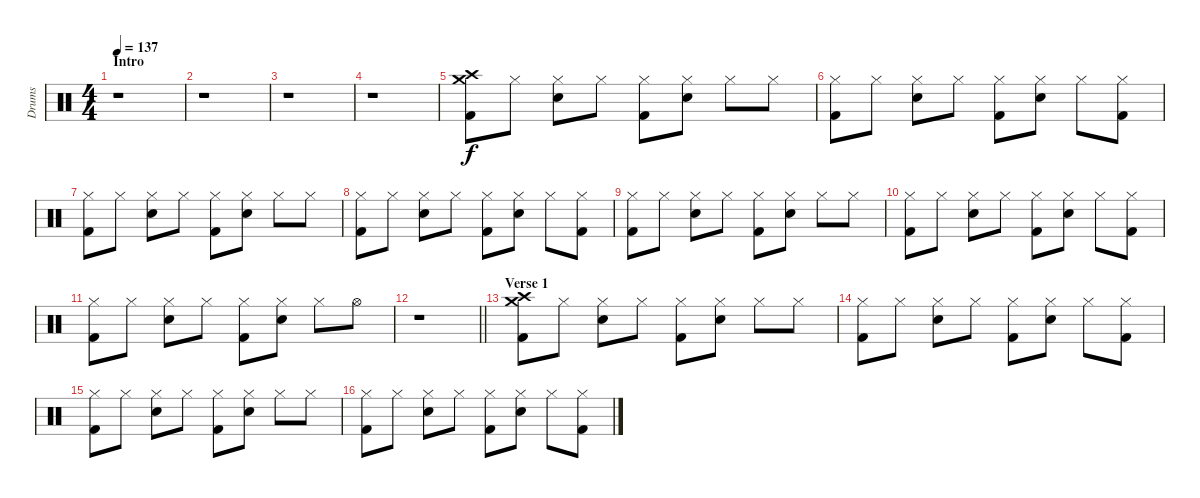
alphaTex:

\track ("Drums" "Drums") {instrument percussion}
\staff {score}
\articulation defaults
\ts (4 4)
\section ("" "Intro")
\tempo 137
\clef neutral
\ks c
r.1{dy f} |
r.1 |
r.1 |
r.1 |
("Crash medium (hit)" "Crash high (hit)" "Kick (hit) 2").8 "Hi-Hat (closed)".8 ("Hi-Hat (closed)" "Electric Snare (hit)").8 "Hi-Hat (closed)".8 ("Hi-Hat (closed)" "Kick (hit) 2").8 ("Hi-Hat (closed)" "Electric Snare (hit)").8 "Hi-Hat (closed)".8 "Hi-Hat (closed)".8 |
("Hi-Hat (closed)" "Kick (hit) 2").8 "Hi-Hat (closed)".8 ("Hi-Hat (closed)" "Electric Snare (hit)").8 "Hi-Hat (closed)".8 ("Hi-Hat (closed)" "Kick (hit) 2").8 ("Hi-Hat (closed)" "Electric Snare (hit)").8 "Hi-Hat (closed)".8 ("Hi-Hat (closed)" "Kick (hit) 2").8 |
("Hi-Hat (closed)" "Kick (hit) 2").8 "Hi-Hat (closed)".8 ("Hi-Hat (closed)" "Electric Snare (hit)").8 "Hi-Hat (closed)".8 ("Hi-Hat (closed)" "Kick (hit) 2").8 ("Hi-Hat (closed)" "Electric Snare (hit)").8 "Hi-Hat (closed)".8 "Hi-Hat (closed)".8 |
("Hi-Hat (closed)" "Kick (hit) 2").8 "Hi-Hat (closed)".8 ("Hi-Hat (closed)" "Electric Snare (hit)").8 "Hi-Hat (closed)".8 ("Hi-Hat (closed)" "Kick (hit) 2").8 ("Hi-Hat (closed)" "Electric Snare (hit)").8 "Hi-Hat (closed)".8 ("Hi-Hat (closed)" "Kick (hit) 2").8 |
("Hi-Hat (closed)" "Kick (hit) 2").8 "Hi-Hat (closed)".8 ("Hi-Hat (closed)" "Electric Snare (hit)").8 "Hi-Hat (closed)".8 ("Hi-Hat (closed)" "Kick (hit) 2").8 ("Hi-Hat (closed)" "Electric Snare (hit)").8 "Hi-Hat (closed)".8 "Hi-Hat (closed)".8 |
("Hi-Hat (closed)" "Kick (hit) 2").8 "Hi-Hat (closed)".8 ("Hi-Hat (closed)" "Electric Snare (hit)").8 "Hi-Hat (closed)".8 ("Hi-Hat (closed)" "Kick (hit) 2").8 ("Hi-Hat (closed)" "Electric Snare (hit)").8 "Hi-Hat (closed)".8 ("Hi-Hat (closed)" "Kick (hit) 2").8 |
("Hi-Hat (closed)" "Kick (hit) 2").8 "Hi-Hat (closed)".8 ("Hi-Hat (closed)" "Electric Snare (hit)").8 "Hi-Hat (closed)".8 ("Hi-Hat (closed)" "Kick (hit) 2").8 ("Hi-Hat (closed)" "Electric Snare (hit)").8 "Hi-Hat (closed)".8 "Hi-Hat (open)".8 |
\barLineRight lightlight
r.1 |
\section ("" "Verse 1")
("Crash medium (hit)" "Crash high (hit)" "Kick (hit) 2").8 "Hi-Hat (closed)".8 ("Hi-Hat (closed)" "Electric Snare (hit)").8 "Hi-Hat (closed)".8 ("Hi-Hat (closed)" "Kick (hit) 2").8 ("Hi-Hat (closed)" "Electric Snare (hit)").8 "Hi-Hat (closed)".8 "Hi-Hat (closed)".8 |
("Hi-Hat (closed)" "Kick (hit) 2").8 "Hi-Hat (closed)".8 ("Hi-Hat (closed)" "Electric Snare (hit)").8 "Hi-Hat (closed)".8 ("Hi-Hat (closed)" "Kick (hit) 2").8 ("Hi-Hat (closed)" "Electric Snare (hit)").8 "Hi-Hat (closed)".8 ("Hi-Hat (closed)" "Kick (hit) 2").8 |
("Hi-Hat (closed)" "Kick (hit) 2").8 "Hi-Hat (closed)".8 ("Hi-Hat (closed)" "Electric Snare (hit)").8 "Hi-Hat (closed)".8 ("Hi-Hat (closed)" "Kick (hit) 2").8 ("Hi-Hat (closed)" "Electric Snare (hit)").8 "Hi-Hat (closed)".8 "Hi-Hat (closed)".8 |
("Hi-Hat (closed)" "Kick (hit) 2").8 "Hi-Hat (closed)".8 ("Hi-Hat (closed)" "Electric Snare (hit)").8 "Hi-Hat (closed)".8 ("Hi-Hat (closed)" "Kick (hit) 2").8 ("Hi-Hat (closed)" "Electric Snare (hit)").8 "Hi-Hat (closed)".8 ("Hi-Hat (closed)" "Kick (hit) 2").8
